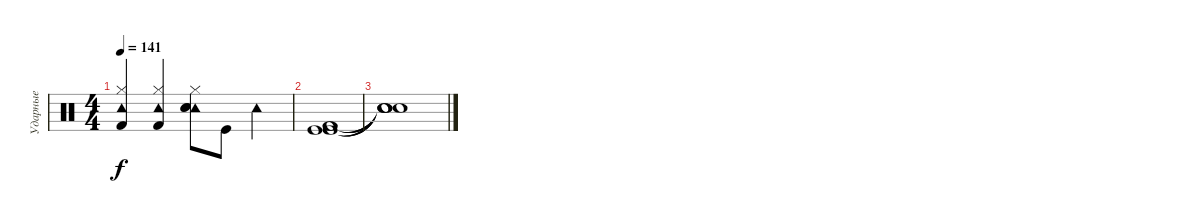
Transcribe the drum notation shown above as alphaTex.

\track ("Ударные" "Ударные") {instrument percussion}
\staff {score}
\articulation defaults
\ts (4 4)
\tempo 141
\clef neutral
\ks c
("Kick (hit) 2" "Hi-Hat (closed)" "Tambourine (hit)").4{dy f} ("Kick (hit) 2" "Hi-Hat (closed)" "Tambourine (hit)").4 ("Tambourine (hit)" "Electric Snare (hit)" "Snare (hit) 2" "Hi-Hat (closed)").8 "Kick (hit)".8 "Tambourine (hit)".4 |
("Kick (hit) 2" "Kick (hit) 2" "Kick (hit)" "Kick (hit)").1 |
("Snare (hit)"{t} "Snare (hit)"{t} "Snare (hit)"{t} "Snare (hit)"{t}).1
